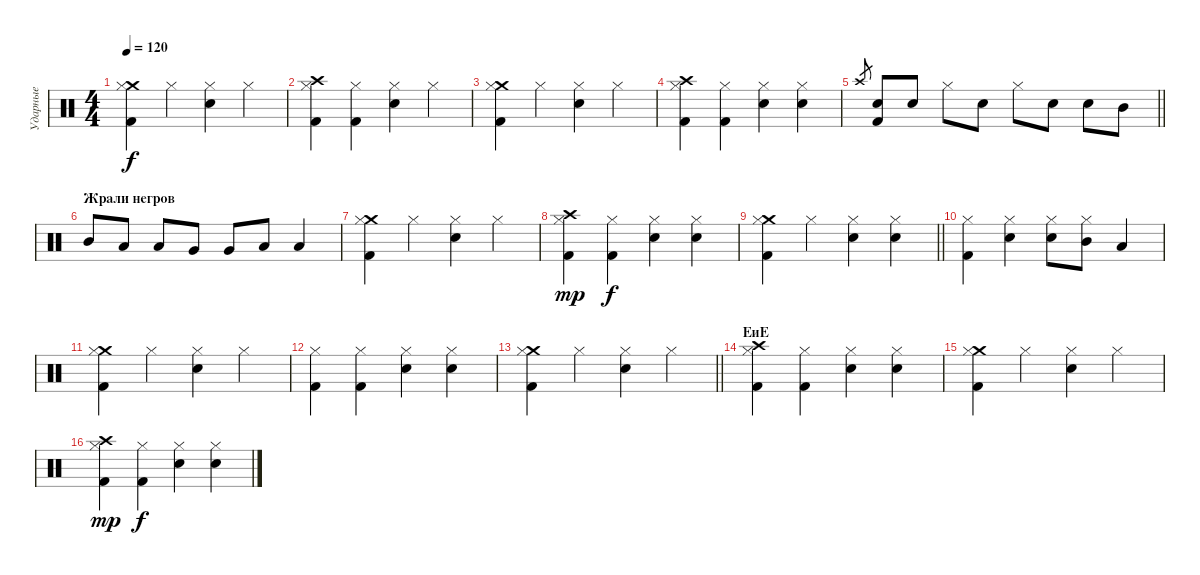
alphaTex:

\track ("Ударные" "Ударные") {instrument percussion}
\staff {score}
\articulation defaults
\ts (4 4)
\tempo 120
\clef neutral
\ks c
("Crash medium (hit)" "Hi-Hat (closed)" "Kick (hit) 2").4{dy f} "Hi-Hat (closed)".4 ("Snare (hit) 2" "Hi-Hat (closed)").4 "Hi-Hat (closed)".4 |
("Crash high (hit)" "Hi-Hat (closed)" "Kick (hit) 2").4 ("Hi-Hat (closed)" "Kick (hit) 2").4 ("Snare (hit) 2" "Hi-Hat (closed)").4 "Hi-Hat (closed)".4 |
("Crash medium (hit)" "Hi-Hat (closed)" "Kick (hit) 2").4 "Hi-Hat (closed)".4 ("Snare (hit) 2" "Hi-Hat (closed)").4 "Hi-Hat (closed)".4 |
("Crash high (hit)" "Hi-Hat (closed)" "Kick (hit) 2").4 ("Hi-Hat (closed)" "Kick (hit) 2").4 ("Snare (hit) 2" "Hi-Hat (closed)").4 ("Snare (hit) 2" "Hi-Hat (closed)").4 |
\barLineRight lightlight "Crash high (hit)".8{gr}
("Snare (hit) 2" "Kick (hit) 2").8 "Snare (hit) 2".8 "Hi-Hat (closed)".8 "Snare (hit) 2".8 "Hi-Hat (closed)".8 "Snare (hit) 2".8 "Snare (hit) 2".8 "Mid Tom (hit)".8 |
\section ("" "Жрали негров")
"Mid Tom (hit)".8 "Low Tom (hit)".8 "Low Tom (hit)".8 "Very Low Tom (hit)".8 "Very Low Tom (hit)".8 "Low Floor Tom (hit)".8 "Low Floor Tom (hit)".4 |
("Crash medium (hit)" "Hi-Hat (closed)" "Kick (hit) 2").4 "Hi-Hat (closed)".4 ("Snare (hit) 2" "Hi-Hat (closed)").4 "Hi-Hat (closed)".4 |
("Crash high (hit)" "Hi-Hat (closed)" "Kick (hit) 2").4{dy mp} ("Hi-Hat (closed)" "Kick (hit) 2").4{dy f} ("Snare (hit) 2" "Hi-Hat (closed)").4 ("Snare (hit) 2" "Hi-Hat (closed)").4 |
\barLineRight lightlight
("Crash medium (hit)" "Hi-Hat (closed)" "Kick (hit) 2").4 "Hi-Hat (closed)".4 ("Snare (hit) 2" "Hi-Hat (closed)").4 ("Snare (hit) 2" "Hi-Hat (closed)").4 |
("Hi-Hat (closed)" "Kick (hit) 2").4 ("Snare (hit) 2" "Hi-Hat (closed)").4 ("Snare (hit) 2" "Hi-Hat (closed)").8 ("Mid Tom (hit)" "Hi-Hat (closed)").8 "Low Tom (hit)".4 |
("Crash medium (hit)" "Hi-Hat (closed)" "Kick (hit) 2").4 "Hi-Hat (closed)".4 ("Snare (hit) 2" "Hi-Hat (closed)").4 "Hi-Hat (closed)".4 |
("Hi-Hat (closed)" "Kick (hit) 2").4 ("Hi-Hat (closed)" "Kick (hit) 2").4 ("Snare (hit) 2" "Hi-Hat (closed)").4 ("Snare (hit) 2" "Hi-Hat (closed)").4 |
\barLineRight lightlight
("Crash medium (hit)" "Hi-Hat (closed)" "Kick (hit) 2").4 "Hi-Hat (closed)".4 ("Snare (hit) 2" "Hi-Hat (closed)").4 "Hi-Hat (closed)".4 |
\section ("" "ЕиЕ")
("Crash high (hit)" "Hi-Hat (closed)" "Kick (hit) 2").4 ("Hi-Hat (closed)" "Kick (hit) 2").4 ("Snare (hit) 2" "Hi-Hat (closed)").4 ("Snare (hit) 2" "Hi-Hat (closed)").4 |
("Crash medium (hit)" "Hi-Hat (closed)" "Kick (hit) 2").4 "Hi-Hat (closed)".4 ("Snare (hit) 2" "Hi-Hat (closed)").4 "Hi-Hat (closed)".4 |
("Crash high (hit)" "Hi-Hat (closed)" "Kick (hit) 2").4{dy mp} ("Hi-Hat (closed)" "Kick (hit) 2").4{dy f} ("Snare (hit) 2" "Hi-Hat (closed)").4 ("Snare (hit) 2" "Hi-Hat (closed)").4
